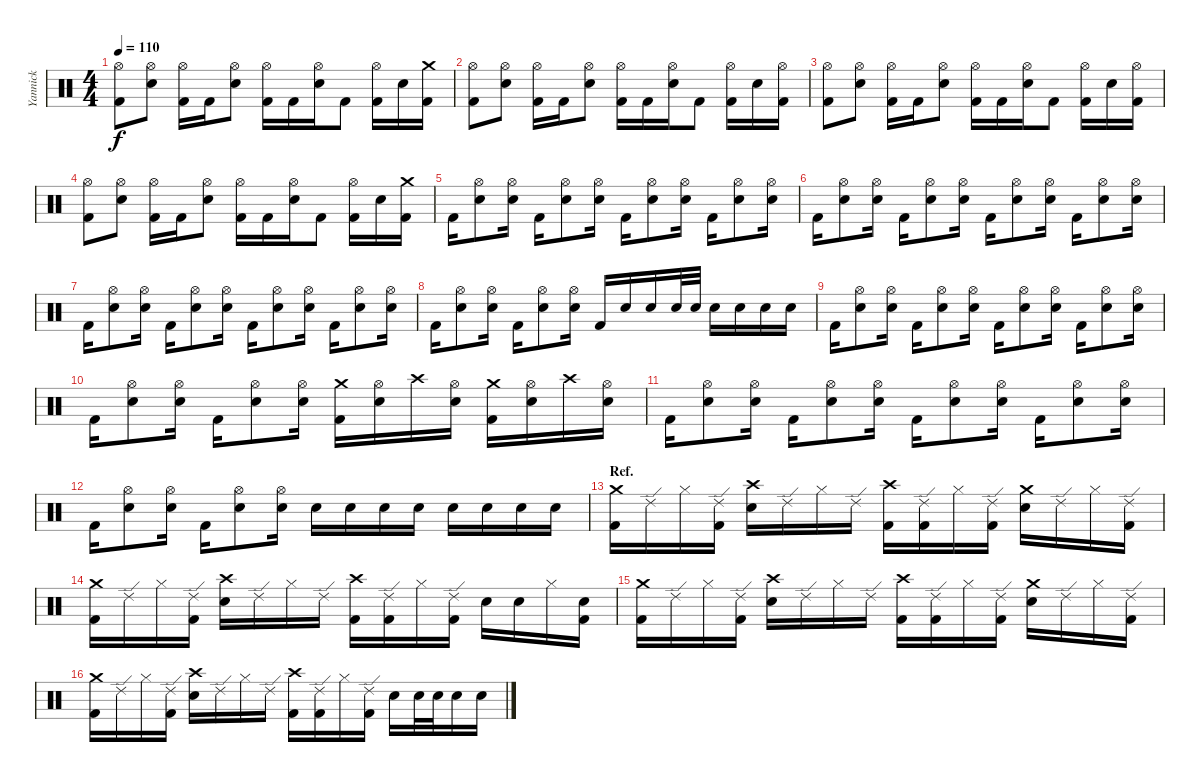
\track ("Yannick" "Yannick") {instrument percussion}
\staff {score}
\articulation defaults
\ts (4 4)
\tempo 110
\clef neutral
\ks c
("Hi-Hat (open)" "Kick (hit) 2").8{dy f} ("Hi-Hat (open)" "Electric Snare (hit)").8 ("Hi-Hat (open)" "Kick (hit) 2").16 "Kick (hit) 2".16 ("Hi-Hat (open)" "Electric Snare (hit)").8 ("Hi-Hat (open)" "Kick (hit) 2").16 "Kick (hit) 2".16 ("Hi-Hat (open)" "Electric Snare (hit)").16 "Kick (hit) 2".8 ("Hi-Hat (open)" "Kick (hit) 2").16 "Electric Snare (hit)".16 ("Crash medium (hit)" "Kick (hit) 2").16 |
("Hi-Hat (open)" "Kick (hit) 2").8 ("Hi-Hat (open)" "Electric Snare (hit)").8 ("Hi-Hat (open)" "Kick (hit) 2").16 "Kick (hit) 2".16 ("Hi-Hat (open)" "Electric Snare (hit)").8 ("Hi-Hat (open)" "Kick (hit) 2").16 "Kick (hit) 2".16 ("Hi-Hat (open)" "Electric Snare (hit)").16 "Kick (hit) 2".8 ("Hi-Hat (open)" "Kick (hit) 2").16 "Electric Snare (hit)".16 ("Hi-Hat (open)" "Kick (hit) 2").16 |
("Hi-Hat (open)" "Kick (hit) 2").8 ("Hi-Hat (open)" "Electric Snare (hit)").8 ("Hi-Hat (open)" "Kick (hit) 2").16 "Kick (hit) 2".16 ("Hi-Hat (open)" "Electric Snare (hit)").8 ("Hi-Hat (open)" "Kick (hit) 2").16 "Kick (hit) 2".16 ("Hi-Hat (open)" "Electric Snare (hit)").16 "Kick (hit) 2".8 ("Hi-Hat (open)" "Kick (hit) 2").16 "Electric Snare (hit)".16 ("Hi-Hat (open)" "Kick (hit) 2").16 |
("Hi-Hat (open)" "Kick (hit) 2").8 ("Hi-Hat (open)" "Electric Snare (hit)").8 ("Hi-Hat (open)" "Kick (hit) 2").16 "Kick (hit) 2".16 ("Hi-Hat (open)" "Electric Snare (hit)").8 ("Hi-Hat (open)" "Kick (hit) 2").16 "Kick (hit) 2".16 ("Hi-Hat (open)" "Electric Snare (hit)").16 "Kick (hit) 2".8 ("Hi-Hat (open)" "Kick (hit) 2").16 "Electric Snare (hit)".16 ("Crash medium (hit)" "Kick (hit) 2").16 |
"Kick (hit) 2".16 ("Hi-Hat (open)" "Electric Snare (hit)").8 ("Hi-Hat (open)" "Electric Snare (hit)").16 "Kick (hit) 2".16 ("Hi-Hat (open)" "Electric Snare (hit)").8 ("Hi-Hat (open)" "Electric Snare (hit)").16 "Kick (hit) 2".16 ("Hi-Hat (open)" "Electric Snare (hit)").8 ("Hi-Hat (open)" "Electric Snare (hit)").16 "Kick (hit) 2".16 ("Hi-Hat (open)" "Electric Snare (hit)").8 ("Hi-Hat (open)" "Electric Snare (hit)").16 |
"Kick (hit) 2".16 ("Hi-Hat (open)" "Electric Snare (hit)").8 ("Hi-Hat (open)" "Electric Snare (hit)").16 "Kick (hit) 2".16 ("Hi-Hat (open)" "Electric Snare (hit)").8 ("Hi-Hat (open)" "Electric Snare (hit)").16 "Kick (hit) 2".16 ("Hi-Hat (open)" "Electric Snare (hit)").8 ("Hi-Hat (open)" "Electric Snare (hit)").16 "Kick (hit) 2".16 ("Hi-Hat (open)" "Electric Snare (hit)").8 ("Hi-Hat (open)" "Electric Snare (hit)").16 |
"Kick (hit) 2".16 ("Hi-Hat (open)" "Electric Snare (hit)").8 ("Hi-Hat (open)" "Electric Snare (hit)").16 "Kick (hit) 2".16 ("Hi-Hat (open)" "Electric Snare (hit)").8 ("Hi-Hat (open)" "Electric Snare (hit)").16 "Kick (hit) 2".16 ("Hi-Hat (open)" "Electric Snare (hit)").8 ("Hi-Hat (open)" "Electric Snare (hit)").16 "Kick (hit) 2".16 ("Hi-Hat (open)" "Electric Snare (hit)").8 ("Hi-Hat (open)" "Electric Snare (hit)").16 |
"Kick (hit) 2".16 ("Hi-Hat (open)" "Electric Snare (hit)").8 ("Hi-Hat (open)" "Electric Snare (hit)").16 "Kick (hit) 2".16 ("Hi-Hat (open)" "Electric Snare (hit)").8 ("Hi-Hat (open)" "Electric Snare (hit)").16 "Kick (hit) 2".16 "Electric Snare (hit)".16 "Electric Snare (hit)".16 "Electric Snare (hit)".32 "Electric Snare (hit)".32 "Electric Snare (hit)".16 "Electric Snare (hit)".16 "Electric Snare (hit)".16 "Electric Snare (hit)".16 |
"Kick (hit) 2".16 ("Hi-Hat (open)" "Electric Snare (hit)").8 ("Hi-Hat (open)" "Electric Snare (hit)").16 "Kick (hit) 2".16 ("Hi-Hat (open)" "Electric Snare (hit)").8 ("Hi-Hat (open)" "Electric Snare (hit)").16 "Kick (hit) 2".16 ("Hi-Hat (open)" "Electric Snare (hit)").8 ("Hi-Hat (open)" "Electric Snare (hit)").16 "Kick (hit) 2".16 ("Hi-Hat (open)" "Electric Snare (hit)").8 ("Hi-Hat (open)" "Electric Snare (hit)").16 |
"Kick (hit) 2".16 ("Hi-Hat (open)" "Electric Snare (hit)").8 ("Hi-Hat (open)" "Electric Snare (hit)").16 "Kick (hit) 2".16 ("Hi-Hat (open)" "Electric Snare (hit)").8 ("Hi-Hat (open)" "Electric Snare (hit)").16 ("Crash medium (hit)" "Kick (hit) 2").16 ("Hi-Hat (open)" "Electric Snare (hit)").16 "Crash high (hit)".16 ("Hi-Hat (open)" "Electric Snare (hit)").16 ("Crash medium (hit)" "Kick (hit) 2").16 ("Hi-Hat (open)" "Electric Snare (hit)").16 "Crash high (hit)".16 ("Hi-Hat (open)" "Electric Snare (hit)").16 |
"Kick (hit) 2".16 ("Hi-Hat (open)" "Electric Snare (hit)").8 ("Hi-Hat (open)" "Electric Snare (hit)").16 "Kick (hit) 2".16 ("Hi-Hat (open)" "Electric Snare (hit)").8 ("Hi-Hat (open)" "Electric Snare (hit)").16 "Kick (hit) 2".16 ("Hi-Hat (open)" "Electric Snare (hit)").8 ("Hi-Hat (open)" "Electric Snare (hit)").16 "Kick (hit) 2".16 ("Hi-Hat (open)" "Electric Snare (hit)").8 ("Hi-Hat (open)" "Electric Snare (hit)").16 |
"Kick (hit) 2".16 ("Hi-Hat (open)" "Electric Snare (hit)").8 ("Hi-Hat (open)" "Electric Snare (hit)").16 "Kick (hit) 2".16 ("Hi-Hat (open)" "Electric Snare (hit)").8 ("Hi-Hat (open)" "Electric Snare (hit)").16 "Electric Snare (hit)".16 "Electric Snare (hit)".16 "Electric Snare (hit)".16 "Electric Snare (hit)".16 "Electric Snare (hit)".16 "Electric Snare (hit)".16 "Electric Snare (hit)".16 "Electric Snare (hit)".16 |
\section ("" "Ref.")
("Crash medium (hit)" "Kick (hit) 2").16 "Ride (edge) 2".16 "Hi-Hat (closed)".16 ("Ride (edge) 2" "Kick (hit) 2").16 ("Crash high (hit)" "Electric Snare (hit)").16 "Ride (edge) 2".16 "Hi-Hat (closed)".16 "Ride (edge) 2".16 ("Crash high (hit)" "Kick (hit) 2").16 ("Ride (edge) 2" "Kick (hit) 2").16 "Hi-Hat (closed)".16 ("Ride (edge) 2" "Kick (hit) 2").16 ("Crash medium (hit)" "Electric Snare (hit)").16 "Ride (edge) 2".16 "Hi-Hat (closed)".16 ("Ride (edge) 2" "Kick (hit) 2").16 |
("Crash medium (hit)" "Kick (hit) 2").16 "Ride (edge) 2".16 "Hi-Hat (closed)".16 ("Ride (edge) 2" "Kick (hit) 2").16 ("Crash high (hit)" "Electric Snare (hit)").16 "Ride (edge) 2".16 "Hi-Hat (closed)".16 "Ride (edge) 2".16 ("Crash high (hit)" "Kick (hit) 2").16 ("Ride (edge) 2" "Kick (hit) 2").16 "Hi-Hat (closed)".16 ("Ride (edge) 2" "Kick (hit) 2").16 "Electric Snare (hit)".16 "Electric Snare (hit)".16 "Hi-Hat (closed)".16 ("Electric Snare (hit)" "Kick (hit) 2").16 |
("Crash medium (hit)" "Kick (hit) 2").16 "Ride (edge) 2".16 "Hi-Hat (closed)".16 ("Ride (edge) 2" "Kick (hit) 2").16 ("Crash high (hit)" "Electric Snare (hit)").16 "Ride (edge) 2".16 "Hi-Hat (closed)".16 "Ride (edge) 2".16 ("Crash high (hit)" "Kick (hit) 2").16 ("Ride (edge) 2" "Kick (hit) 2").16 "Hi-Hat (closed)".16 ("Ride (edge) 2" "Kick (hit) 2").16 ("Crash medium (hit)" "Electric Snare (hit)").16 "Ride (edge) 2".16 "Hi-Hat (closed)".16 ("Ride (edge) 2" "Kick (hit) 2").16 |
("Crash medium (hit)" "Kick (hit) 2").16 "Ride (edge) 2".16 "Hi-Hat (closed)".16 ("Ride (edge) 2" "Kick (hit) 2").16 ("Crash high (hit)" "Electric Snare (hit)").16 "Ride (edge) 2".16 "Hi-Hat (closed)".16 "Ride (edge) 2".16 ("Crash high (hit)" "Kick (hit) 2").16 ("Ride (edge) 2" "Kick (hit) 2").16 "Hi-Hat (closed)".16 ("Ride (edge) 2" "Kick (hit) 2").16 "Electric Snare (hit)".16 "Electric Snare (hit)".32 "Electric Snare (hit)".32 "Electric Snare (hit)".16 "Electric Snare (hit)".16
